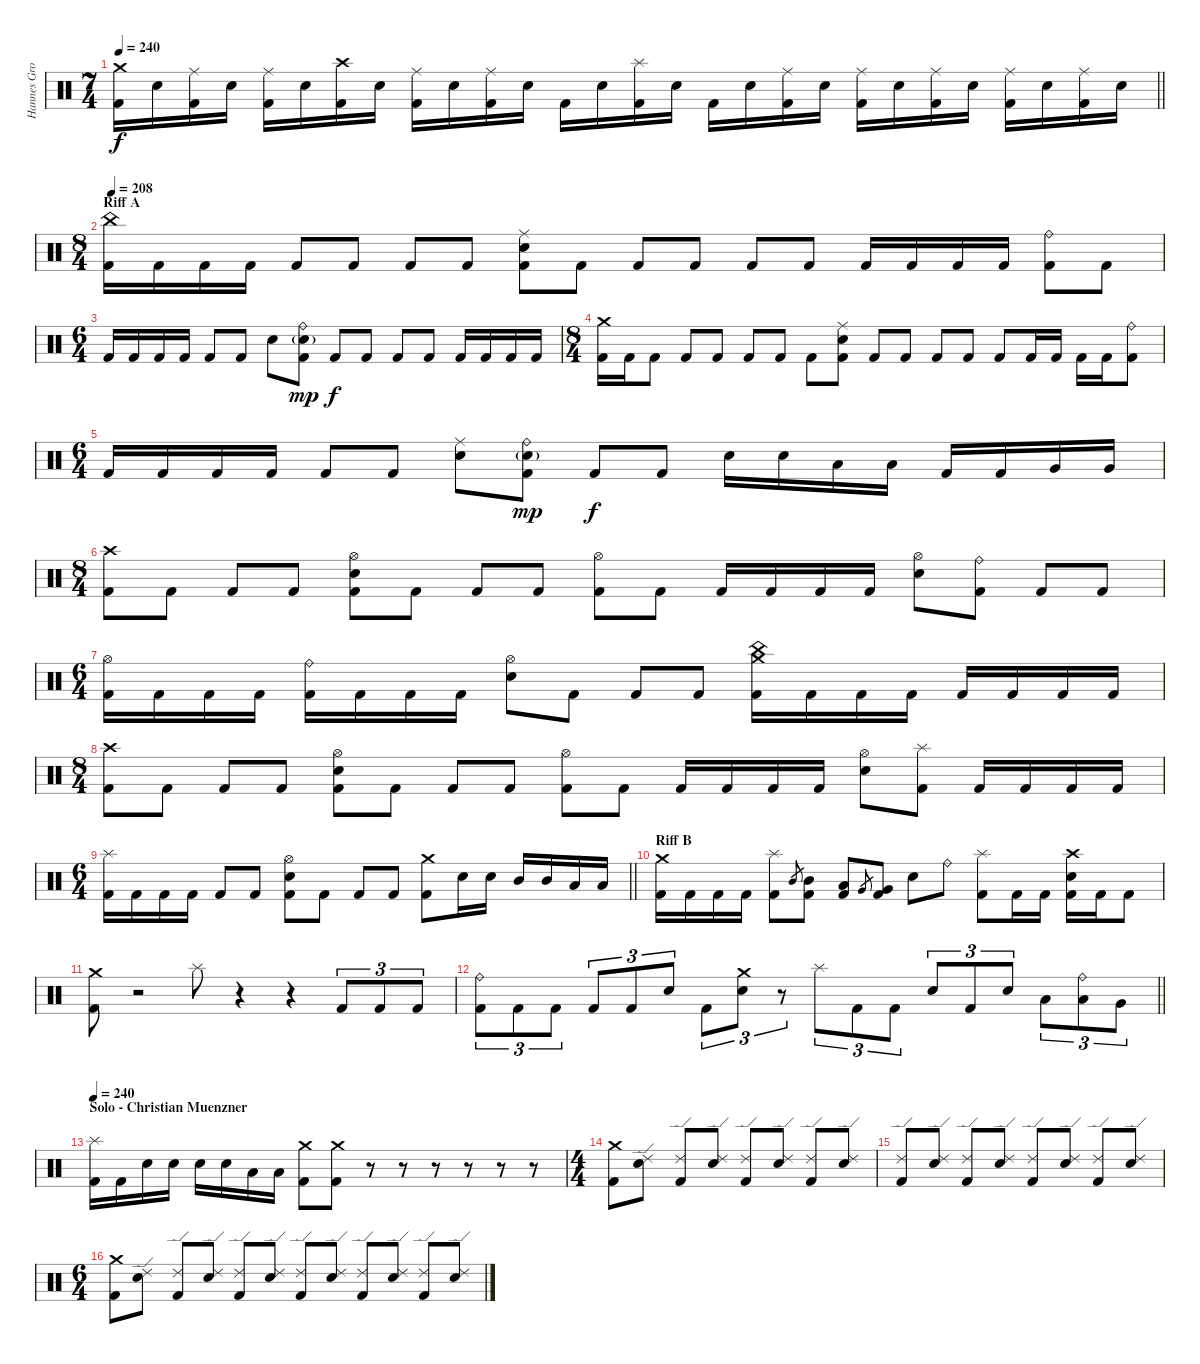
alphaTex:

\track ("Hannes Grossmann" "Hannes Gro") {instrument percussion}
\staff {score}
\articulation defaults
\ts (7 4)
\tempo 240
\clef neutral
\barLineRight lightlight
\ks c
("Crash medium (hit)" "Kick (hit) 2").16{dy f} "Electric Snare (hit)".16 ("Ride (middle)" "Kick (hit) 2").16 "Electric Snare (hit)".16 ("Ride (middle)" "Kick (hit) 2").16 "Electric Snare (hit)".16 ("Crash high (hit)" "Kick (hit) 2").16 "Electric Snare (hit)".16 ("Ride (middle)" "Kick (hit) 2").16 "Electric Snare (hit)".16 ("Ride (middle)" "Kick (hit) 2").16 "Electric Snare (hit)".16 "Kick (hit) 2".16 "Electric Snare (hit)".16 ("Splash (hit)" "Kick (hit) 2").16 "Electric Snare (hit)".16 "Kick (hit) 2".16 "Electric Snare (hit)".16 ("Ride (middle)" "Kick (hit) 2").16 "Electric Snare (hit)".16 ("Ride (middle)" "Kick (hit) 2").16 "Electric Snare (hit)".16 ("Ride (middle)" "Kick (hit) 2").16 "Electric Snare (hit)".16 ("Ride (middle)" "Kick (hit) 2").16 "Electric Snare (hit)".16 ("Ride (middle)" "Kick (hit) 2").16 "Electric Snare (hit)".16 |
\ts (8 4)
\section ("" "Riff A")
\tempo 208
("China (hit)" "Kick (hit) 2").16 "Kick (hit) 2".16 "Kick (hit) 2".16 "Kick (hit) 2".16 "Kick (hit) 2".8 "Kick (hit) 2".8 "Kick (hit) 2".8 "Kick (hit) 2".8 ("Ride (middle)" "Electric Snare (hit)" "Kick (hit) 2").8 "Kick (hit) 2".8 "Kick (hit) 2".8 "Kick (hit) 2".8 "Kick (hit) 2".8 "Kick (hit) 2".8 "Kick (hit) 2".16 "Kick (hit) 2".16 "Kick (hit) 2".16 "Kick (hit) 2".16 ("Ride (bell)" "Kick (hit) 2").8 "Kick (hit) 2".8 |
\ts (6 4)
"Kick (hit) 2".16 "Kick (hit) 2".16 "Kick (hit) 2".16 "Kick (hit) 2".16 "Kick (hit) 2".8 "Kick (hit) 2".8 "Electric Snare (hit)".8 ("Ride (bell)" "Electric Snare (hit)"{g} "Kick (hit) 2").8{dy mp} "Kick (hit) 2".8{dy f} "Kick (hit) 2".8 "Kick (hit) 2".8 "Kick (hit) 2".8 "Kick (hit) 2".16 "Kick (hit) 2".16 "Kick (hit) 2".16 "Kick (hit) 2".16 |
\ts (8 4)
("Crash medium (hit)" "Kick (hit) 2").16 "Kick (hit) 2".16 "Kick (hit) 2".8 "Kick (hit) 2".8 "Kick (hit) 2".8 "Kick (hit) 2".8 "Kick (hit) 2".8 "Kick (hit) 2".8 ("Ride (middle)" "Electric Snare (hit)" "Kick (hit) 2").8 "Kick (hit) 2".8 "Kick (hit) 2".8 "Kick (hit) 2".8 "Kick (hit) 2".8 "Kick (hit) 2".8 "Kick (hit) 2".16 "Kick (hit) 2".16 "Kick (hit) 2".16 "Kick (hit) 2".16 ("Ride (bell)" "Kick (hit) 2").8 |
\ts (6 4)
"Kick (hit) 2".16 "Kick (hit) 2".16 "Kick (hit) 2".16 "Kick (hit) 2".16 "Kick (hit) 2".8 "Kick (hit) 2".8 ("Ride (middle)" "Electric Snare (hit)").8 ("Ride (bell)" "Electric Snare (hit)"{g} "Kick (hit) 2").8{dy mp} "Kick (hit) 2".8{dy f} "Kick (hit) 2".8 "Electric Snare (hit)".16 "Electric Snare (hit)".16 "Low Tom (hit)".16 "Low Tom (hit)".16 "Kick (hit) 2".16 "Kick (hit) 2".16 "Very Low Tom (hit)".16 "Very Low Tom (hit)".16 |
\ts (8 4)
("Crash high (hit)" "Kick (hit) 2").8 "Kick (hit) 2".8 "Kick (hit) 2".8 "Kick (hit) 2".8 ("Hi-Hat (open)" "Electric Snare (hit)" "Kick (hit) 2").8 "Kick (hit) 2".8 "Kick (hit) 2".8 "Kick (hit) 2".8 ("Hi-Hat (open)" "Kick (hit) 2").8 "Kick (hit) 2".8 "Kick (hit) 2".16 "Kick (hit) 2".16 "Kick (hit) 2".16 "Kick (hit) 2".16 ("Hi-Hat (open)" "Electric Snare (hit)").8 ("Ride (bell)" "Kick (hit) 2").8 "Kick (hit) 2".8 "Kick (hit) 2".8 |
\ts (6 4)
("Hi-Hat (open)" "Kick (hit) 2").16 "Kick (hit) 2".16 "Kick (hit) 2".16 "Kick (hit) 2".16 ("Ride (bell)" "Kick (hit) 2").16 "Kick (hit) 2".16 "Kick (hit) 2".16 "Kick (hit) 2".16 ("Hi-Hat (open)" "Electric Snare (hit)").8 "Kick (hit) 2".8 "Kick (hit) 2".8 "Kick (hit) 2".8 ("China (hit)" "Crash medium (hit)" "Kick (hit) 2").16 "Kick (hit) 2".16 "Kick (hit) 2".16 "Kick (hit) 2".16 "Kick (hit) 2".16 "Kick (hit) 2".16 "Kick (hit) 2".16 "Kick (hit) 2".16 |
\ts (8 4)
("Crash high (hit)" "Kick (hit) 2").8 "Kick (hit) 2".8 "Kick (hit) 2".8 "Kick (hit) 2".8 ("Hi-Hat (open)" "Electric Snare (hit)" "Kick (hit) 2").8 "Kick (hit) 2".8 "Kick (hit) 2".8 "Kick (hit) 2".8 ("Hi-Hat (open)" "Kick (hit) 2").8 "Kick (hit) 2".8 "Kick (hit) 2".16 "Kick (hit) 2".16 "Kick (hit) 2".16 "Kick (hit) 2".16 ("Hi-Hat (open)" "Electric Snare (hit)").8 ("Splash (hit)" "Kick (hit) 2").8 "Kick (hit) 2".16 "Kick (hit) 2".16 "Kick (hit) 2".16 "Kick (hit) 2".16 |
\ts (6 4)
\barLineRight lightlight
("Splash (hit)" "Kick (hit) 2").16 "Kick (hit) 2".16 "Kick (hit) 2".16 "Kick (hit) 2".16 "Kick (hit) 2".8 "Kick (hit) 2".8 ("Hi-Hat (open)" "Electric Snare (hit)" "Kick (hit) 2").8 "Kick (hit) 2".8 "Kick (hit) 2".8 "Kick (hit) 2".8 ("Crash medium (hit)" "Kick (hit) 2").8 "Electric Snare (hit)".16 "Electric Snare (hit)".16 "Mid Tom (hit)".16 "Mid Tom (hit)".16 "Low Tom (hit)".16 "Low Tom (hit)".16 |
\section ("" "Riff B")
("Crash medium (hit)" "Kick (hit) 2").16 "Kick (hit) 2".16 "Kick (hit) 2".16 "Kick (hit) 2".16 ("Splash (hit)" "Kick (hit) 2").8 "Mid Tom (hit)".8{gr} ("Mid Tom (hit)" "Kick (hit) 2").8 ("Low Tom (hit)" "Kick (hit) 2").8 "Very Low Tom (hit)".8{gr} ("Very Low Tom (hit)" "Kick (hit) 2").8 "Electric Snare (hit)".8 "Ride (bell)".8 ("Splash (hit)" "Kick (hit) 2").8 "Kick (hit) 2".16 "Kick (hit) 2".16 ("Crash high (hit)" "Electric Snare (hit)" "Kick (hit) 2").16 "Kick (hit) 2".16 "Kick (hit) 2".8 |
("Crash medium (hit)" "Kick (hit) 2").8 r.2 "Splash (hit)".8 r.4 r.4 "Kick (hit) 2".8{tu (3 2)} "Kick (hit) 2".8{tu (3 2)} "Kick (hit) 2".8{tu (3 2)} |
\barLineRight lightlight
("Ride (bell)" "Kick (hit) 2").8{tu (3 2)} "Kick (hit) 2".8{tu (3 2)} "Kick (hit) 2".8{tu (3 2)} "Kick (hit) 2".8{tu (3 2)} "Kick (hit) 2".8{tu (3 2)} "Electric Snare (hit)".8{tu (3 2)} "Kick (hit) 2".8{tu (3 2)} ("Crash medium (hit)" "Electric Snare (hit)").8{tu (3 2)} r.8{tu (3 2)} "Splash (hit)".8{tu (3 2)} "Kick (hit) 2".8{tu (3 2)} "Kick (hit) 2".8{tu (3 2)} "Electric Snare (hit)".8{tu (3 2)} "Kick (hit) 2".8{tu (3 2)} "Electric Snare (hit)".8{tu (3 2)} "Low Tom (hit)".8{tu (3 2)} ("Ride (bell)" "Low Tom (hit)").8{tu (3 2)} "Very Low Tom (hit)".8{tu (3 2)} |
\section ("" "Solo - Christian Muenzner")
\tempo 240
("Splash (hit)" "Kick (hit) 2").16 "Kick (hit) 2".16 "Electric Snare (hit)".16 "Electric Snare (hit)".16 "Electric Snare (hit)".16 "Electric Snare (hit)".16 "Low Tom (hit)".16 "Low Tom (hit)".16 ("Crash medium (hit)" "Kick (hit) 2").8 ("Crash medium (hit)" "Kick (hit) 2").8 r.8 r.8 r.8 r.8 r.8 r.8 |
\ts (4 4)
("Crash medium (hit)" "Kick (hit) 2").8 ("Ride (edge) 2" "Electric Snare (hit)").8 ("Ride (edge) 2" "Kick (hit) 2").8 ("Ride (edge) 2" "Electric Snare (hit)").8 ("Ride (edge) 2" "Kick (hit) 2").8 ("Ride (edge) 2" "Electric Snare (hit)").8 ("Ride (edge) 2" "Kick (hit) 2").8 ("Ride (edge) 2" "Electric Snare (hit)").8 |
("Ride (edge) 2" "Kick (hit) 2").8 ("Ride (edge) 2" "Electric Snare (hit)").8 ("Ride (edge) 2" "Kick (hit) 2").8 ("Ride (edge) 2" "Electric Snare (hit)").8 ("Ride (edge) 2" "Kick (hit) 2").8 ("Ride (edge) 2" "Electric Snare (hit)").8 ("Ride (edge) 2" "Kick (hit) 2").8 ("Ride (edge) 2" "Electric Snare (hit)").8 |
\ts (6 4)
("Crash medium (hit)" "Kick (hit) 2").8 ("Ride (edge) 2" "Electric Snare (hit)").8 ("Ride (edge) 2" "Kick (hit) 2").8 ("Ride (edge) 2" "Electric Snare (hit)").8 ("Ride (edge) 2" "Kick (hit) 2").8 ("Ride (edge) 2" "Electric Snare (hit)").8 ("Ride (edge) 2" "Kick (hit) 2").8 ("Ride (edge) 2" "Electric Snare (hit)").8 ("Ride (edge) 2" "Kick (hit) 2").8 ("Ride (edge) 2" "Electric Snare (hit)").8 ("Ride (edge) 2" "Kick (hit) 2").8 ("Ride (edge) 2" "Electric Snare (hit)").8
